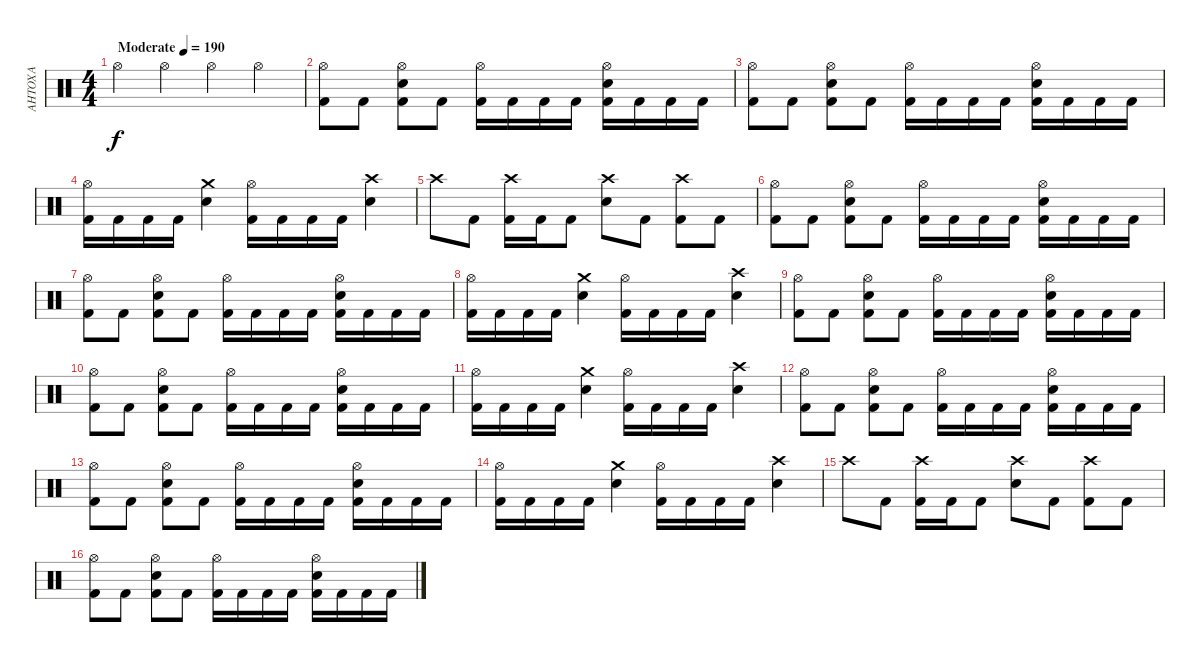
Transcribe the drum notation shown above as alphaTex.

\track ("АНТОХА" "АНТОХА") {instrument percussion}
\staff {score}
\articulation defaults
\ts (4 4)
\tempo (190 "Moderate")
\clef neutral
\ks c "Hi-Hat (open)".4{dy f} "Hi-Hat (open)".4 "Hi-Hat (open)".4 "Hi-Hat (open)".4
|
("Hi-Hat (open)" "Kick (hit) 2").8 "Kick (hit) 2".8 ("Hi-Hat (open)" "Electric Snare (hit)" "Kick (hit) 2").8 "Kick (hit) 2".8 ("Hi-Hat (open)" "Kick (hit) 2").16 "Kick (hit) 2".16 "Kick (hit) 2".16 "Kick (hit) 2".16 ("Hi-Hat (open)" "Electric Snare (hit)" "Kick (hit) 2").16 "Kick (hit) 2".16 "Kick (hit) 2".16 "Kick (hit) 2".16 |
("Hi-Hat (open)" "Kick (hit) 2").8 "Kick (hit) 2".8 ("Hi-Hat (open)" "Electric Snare (hit)" "Kick (hit) 2").8 "Kick (hit) 2".8 ("Hi-Hat (open)" "Kick (hit) 2").16 "Kick (hit) 2".16 "Kick (hit) 2".16 "Kick (hit) 2".16 ("Hi-Hat (open)" "Electric Snare (hit)" "Kick (hit) 2").16 "Kick (hit) 2".16 "Kick (hit) 2".16 "Kick (hit) 2".16 |
("Hi-Hat (open)" "Kick (hit) 2").16 "Kick (hit) 2".16 "Kick (hit) 2".16 "Kick (hit) 2".16 ("Crash medium (hit)" "Electric Snare (hit)").4 ("Hi-Hat (open)" "Kick (hit) 2").16 "Kick (hit) 2".16 "Kick (hit) 2".16 "Kick (hit) 2".16 ("Crash high (hit)" "Electric Snare (hit)").4 |
"Crash high (hit)".8 "Kick (hit) 2".8 ("Crash high (hit)" "Kick (hit) 2").16 "Kick (hit) 2".16 "Kick (hit) 2".8 ("Crash high (hit)" "Electric Snare (hit)").8 "Kick (hit) 2".8 ("Crash high (hit)" "Kick (hit) 2").8 "Kick (hit) 2".8 |
("Hi-Hat (open)" "Kick (hit) 2").8 "Kick (hit) 2".8 ("Hi-Hat (open)" "Electric Snare (hit)" "Kick (hit) 2").8 "Kick (hit) 2".8 ("Hi-Hat (open)" "Kick (hit) 2").16 "Kick (hit) 2".16 "Kick (hit) 2".16 "Kick (hit) 2".16 ("Hi-Hat (open)" "Electric Snare (hit)" "Kick (hit) 2").16 "Kick (hit) 2".16 "Kick (hit) 2".16 "Kick (hit) 2".16 |
("Hi-Hat (open)" "Kick (hit) 2").8 "Kick (hit) 2".8 ("Hi-Hat (open)" "Electric Snare (hit)" "Kick (hit) 2").8 "Kick (hit) 2".8 ("Hi-Hat (open)" "Kick (hit) 2").16 "Kick (hit) 2".16 "Kick (hit) 2".16 "Kick (hit) 2".16 ("Hi-Hat (open)" "Electric Snare (hit)" "Kick (hit) 2").16 "Kick (hit) 2".16 "Kick (hit) 2".16 "Kick (hit) 2".16 |
("Hi-Hat (open)" "Kick (hit) 2").16 "Kick (hit) 2".16 "Kick (hit) 2".16 "Kick (hit) 2".16 ("Crash medium (hit)" "Electric Snare (hit)").4 ("Hi-Hat (open)" "Kick (hit) 2").16 "Kick (hit) 2".16 "Kick (hit) 2".16 "Kick (hit) 2".16 ("Crash high (hit)" "Electric Snare (hit)").4 |
("Hi-Hat (open)" "Kick (hit) 2").8 "Kick (hit) 2".8 ("Hi-Hat (open)" "Electric Snare (hit)" "Kick (hit) 2").8 "Kick (hit) 2".8 ("Hi-Hat (open)" "Kick (hit) 2").16 "Kick (hit) 2".16 "Kick (hit) 2".16 "Kick (hit) 2".16 ("Hi-Hat (open)" "Electric Snare (hit)" "Kick (hit) 2").16 "Kick (hit) 2".16 "Kick (hit) 2".16 "Kick (hit) 2".16 |
("Hi-Hat (open)" "Kick (hit) 2").8 "Kick (hit) 2".8 ("Hi-Hat (open)" "Electric Snare (hit)" "Kick (hit) 2").8 "Kick (hit) 2".8 ("Hi-Hat (open)" "Kick (hit) 2").16 "Kick (hit) 2".16 "Kick (hit) 2".16 "Kick (hit) 2".16 ("Hi-Hat (open)" "Electric Snare (hit)" "Kick (hit) 2").16 "Kick (hit) 2".16 "Kick (hit) 2".16 "Kick (hit) 2".16 |
("Hi-Hat (open)" "Kick (hit) 2").16 "Kick (hit) 2".16 "Kick (hit) 2".16 "Kick (hit) 2".16 ("Crash medium (hit)" "Electric Snare (hit)").4 ("Hi-Hat (open)" "Kick (hit) 2").16 "Kick (hit) 2".16 "Kick (hit) 2".16 "Kick (hit) 2".16 ("Crash high (hit)" "Electric Snare (hit)").4 |
("Hi-Hat (open)" "Kick (hit) 2").8 "Kick (hit) 2".8 ("Hi-Hat (open)" "Electric Snare (hit)" "Kick (hit) 2").8 "Kick (hit) 2".8 ("Hi-Hat (open)" "Kick (hit) 2").16 "Kick (hit) 2".16 "Kick (hit) 2".16 "Kick (hit) 2".16 ("Hi-Hat (open)" "Electric Snare (hit)" "Kick (hit) 2").16 "Kick (hit) 2".16 "Kick (hit) 2".16 "Kick (hit) 2".16 |
("Hi-Hat (open)" "Kick (hit) 2").8 "Kick (hit) 2".8 ("Hi-Hat (open)" "Electric Snare (hit)" "Kick (hit) 2").8 "Kick (hit) 2".8 ("Hi-Hat (open)" "Kick (hit) 2").16 "Kick (hit) 2".16 "Kick (hit) 2".16 "Kick (hit) 2".16 ("Hi-Hat (open)" "Electric Snare (hit)" "Kick (hit) 2").16 "Kick (hit) 2".16 "Kick (hit) 2".16 "Kick (hit) 2".16 |
("Hi-Hat (open)" "Kick (hit) 2").16 "Kick (hit) 2".16 "Kick (hit) 2".16 "Kick (hit) 2".16 ("Crash medium (hit)" "Electric Snare (hit)").4 ("Hi-Hat (open)" "Kick (hit) 2").16 "Kick (hit) 2".16 "Kick (hit) 2".16 "Kick (hit) 2".16 ("Crash high (hit)" "Electric Snare (hit)").4 |
"Crash high (hit)".8 "Kick (hit) 2".8 ("Crash high (hit)" "Kick (hit) 2").16 "Kick (hit) 2".16 "Kick (hit) 2".8 ("Crash high (hit)" "Electric Snare (hit)").8 "Kick (hit) 2".8 ("Crash high (hit)" "Kick (hit) 2").8 "Kick (hit) 2".8 |
("Hi-Hat (open)" "Kick (hit) 2").8 "Kick (hit) 2".8 ("Hi-Hat (open)" "Electric Snare (hit)" "Kick (hit) 2").8 "Kick (hit) 2".8 ("Hi-Hat (open)" "Kick (hit) 2").16 "Kick (hit) 2".16 "Kick (hit) 2".16 "Kick (hit) 2".16 ("Hi-Hat (open)" "Electric Snare (hit)" "Kick (hit) 2").16 "Kick (hit) 2".16 "Kick (hit) 2".16 "Kick (hit) 2".16
